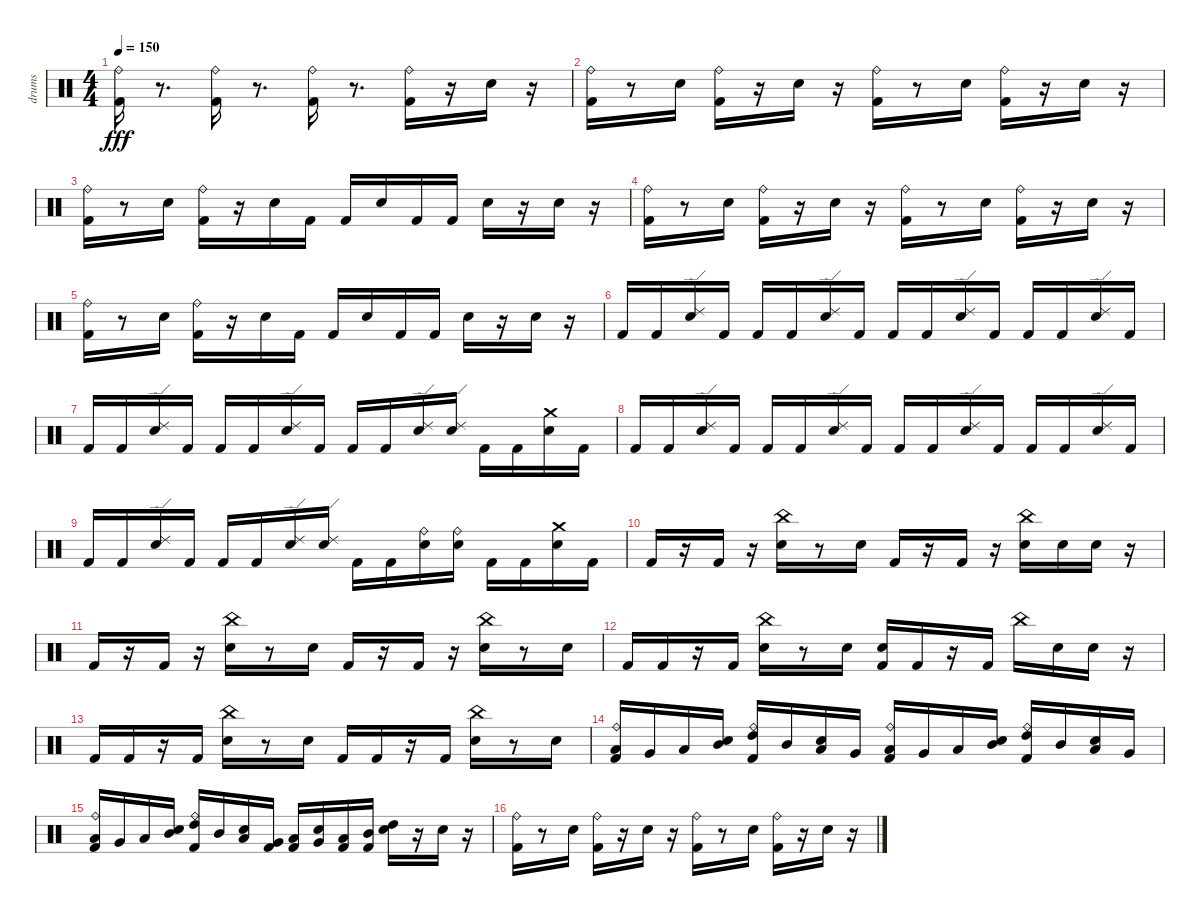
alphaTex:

\track ("drums" "drums") {instrument percussion}
\staff {score}
\articulation defaults
\ts (4 4)
\tempo 150
\clef neutral
\ks c
("Kick (hit) 2" "Ride (bell)").16{dy fff} r.8{d} ("Kick (hit) 2" "Ride (bell)").16 r.8{d} ("Kick (hit) 2" "Ride (bell)").16 r.8{d} ("Kick (hit) 2" "Ride (bell)").16 r.16 "Electric Snare (hit)".16 r.16 |
("Ride (bell)" "Kick (hit) 2").16 r.8 "Electric Snare (hit)".16 ("Ride (bell)" "Kick (hit) 2").16 r.16 "Electric Snare (hit)".16 r.16 ("Ride (bell)" "Kick (hit) 2").16 r.8 "Electric Snare (hit)".16 ("Ride (bell)" "Kick (hit) 2").16 r.16 "Electric Snare (hit)".16 r.16 |
("Ride (bell)" "Kick (hit) 2").16 r.8 "Electric Snare (hit)".16 ("Ride (bell)" "Kick (hit) 2").16 r.16 "Electric Snare (hit)".16 "Kick (hit) 2".16 "Kick (hit) 2".16 "Electric Snare (hit)".16 "Kick (hit) 2".16 "Kick (hit) 2".16 "Electric Snare (hit)".16 r.16 "Electric Snare (hit)".16 r.16 |
("Ride (bell)" "Kick (hit) 2").16 r.8 "Electric Snare (hit)".16 ("Ride (bell)" "Kick (hit) 2").16 r.16 "Electric Snare (hit)".16 r.16 ("Ride (bell)" "Kick (hit) 2").16 r.8 "Electric Snare (hit)".16 ("Ride (bell)" "Kick (hit) 2").16 r.16 "Electric Snare (hit)".16 r.16 |
("Ride (bell)" "Kick (hit) 2").16 r.8 "Electric Snare (hit)".16 ("Ride (bell)" "Kick (hit) 2").16 r.16 "Electric Snare (hit)".16 "Kick (hit) 2".16 "Kick (hit) 2".16 "Electric Snare (hit)".16 "Kick (hit) 2".16 "Kick (hit) 2".16 "Electric Snare (hit)".16 r.16 "Electric Snare (hit)".16 r.16 |
"Kick (hit) 2".16 "Kick (hit) 2".16 ("Ride (edge) 2" "Electric Snare (hit)").16 "Kick (hit) 2".16 "Kick (hit) 2".16 "Kick (hit) 2".16 ("Ride (edge) 2" "Electric Snare (hit)").16 "Kick (hit) 2".16 "Kick (hit) 2".16 "Kick (hit) 2".16 ("Ride (edge) 2" "Electric Snare (hit)").16 "Kick (hit) 2".16 "Kick (hit) 2".16 "Kick (hit) 2".16 ("Ride (edge) 2" "Electric Snare (hit)").16 "Kick (hit) 2".16 |
"Kick (hit) 2".16 "Kick (hit) 2".16 ("Ride (edge) 2" "Electric Snare (hit)").16 "Kick (hit) 2".16 "Kick (hit) 2".16 "Kick (hit) 2".16 ("Ride (edge) 2" "Electric Snare (hit)").16 "Kick (hit) 2".16 "Kick (hit) 2".16 "Kick (hit) 2".16 ("Ride (edge) 2" "Electric Snare (hit)").16 ("Ride (edge) 2" "Electric Snare (hit)").16 "Kick (hit) 2".16 "Kick (hit) 2".16 ("Crash medium (hit)" "Electric Snare (hit)").16 "Kick (hit) 2".16 |
"Kick (hit) 2".16 "Kick (hit) 2".16 ("Ride (edge) 2" "Electric Snare (hit)").16 "Kick (hit) 2".16 "Kick (hit) 2".16 "Kick (hit) 2".16 ("Ride (edge) 2" "Electric Snare (hit)").16 "Kick (hit) 2".16 "Kick (hit) 2".16 "Kick (hit) 2".16 ("Ride (edge) 2" "Electric Snare (hit)").16 "Kick (hit) 2".16 "Kick (hit) 2".16 "Kick (hit) 2".16 ("Ride (edge) 2" "Electric Snare (hit)").16 "Kick (hit) 2".16 |
"Kick (hit) 2".16 "Kick (hit) 2".16 ("Ride (edge) 2" "Electric Snare (hit)").16 "Kick (hit) 2".16 "Kick (hit) 2".16 "Kick (hit) 2".16 ("Ride (edge) 2" "Electric Snare (hit)").16 ("Ride (edge) 2" "Electric Snare (hit)").16 "Kick (hit) 2".16 "Kick (hit) 2".16 ("Ride (bell)" "Electric Snare (hit)").16 ("Ride (bell)" "Electric Snare (hit)").16 "Kick (hit) 2".16 "Kick (hit) 2".16 ("Crash medium (hit)" "Electric Snare (hit)").16 "Kick (hit) 2".16 |
"Kick (hit) 2".16 r.16 "Kick (hit) 2".16 r.16 ("China (hit)" "Electric Snare (hit)").16 r.8 "Electric Snare (hit)".16 "Kick (hit) 2".16 r.16 "Kick (hit) 2".16 r.16 ("China (hit)" "Electric Snare (hit)").16 "Electric Snare (hit)".16 "Electric Snare (hit)".16 r.16 |
"Kick (hit) 2".16 r.16 "Kick (hit) 2".16 r.16 ("China (hit)" "Electric Snare (hit)").16 r.8 "Electric Snare (hit)".16 "Kick (hit) 2".16 r.16 "Kick (hit) 2".16 r.16 ("Electric Snare (hit)" "China (hit)").16 r.8 "Electric Snare (hit)".16 |
"Kick (hit) 2".16 "Kick (hit) 2".16 r.16 "Kick (hit) 2".16 ("China (hit)" "Electric Snare (hit)").16 r.8 "Electric Snare (hit)".16 ("Electric Snare (hit)" "Kick (hit) 2").16 "Kick (hit) 2".16 r.16 "Kick (hit) 2".16 "China (hit)".16 "Electric Snare (hit)".16 "Electric Snare (hit)".16 r.16 |
"Kick (hit) 2".16 "Kick (hit) 2".16 r.16 "Kick (hit) 2".16 ("China (hit)" "Electric Snare (hit)").16 r.8 "Electric Snare (hit)".16 "Kick (hit) 2".16 "Kick (hit) 2".16 r.16 "Kick (hit) 2".16 ("China (hit)" "Electric Snare (hit)").16 r.8 "Electric Snare (hit)".16 |
("Low Floor Tom (hit)" "Ride (bell)" "Kick (hit) 2").16 "Very Low Tom (hit)".16 "Low Tom (hit)".16 ("Mid Tom (hit)" "Electric Snare (hit)").16 ("High Tom (hit)" "Ride (bell)" "Kick (hit) 2").16 "Mid Tom (hit)".16 ("Low Tom (hit)" "Electric Snare (hit)").16 "Very Low Tom (hit)".16 ("Low Floor Tom (hit)" "Ride (bell)" "Kick (hit) 2").16 "Very Low Tom (hit)".16 "Low Tom (hit)".16 ("Mid Tom (hit)" "Electric Snare (hit)").16 ("High Tom (hit)" "Ride (bell)" "Kick (hit) 2").16 "Mid Tom (hit)".16 ("Low Tom (hit)" "Electric Snare (hit)").16 "Very Low Tom (hit)".16 |
("Low Floor Tom (hit)" "Ride (bell)" "Kick (hit) 2").16 "Very Low Tom (hit)".16 "Low Tom (hit)".16 ("Mid Tom (hit)" "Electric Snare (hit)").16 ("High Tom (hit)" "Ride (bell)" "Kick (hit) 2").16 "Mid Tom (hit)".16 ("Low Tom (hit)" "Electric Snare (hit)").16 ("Very Low Tom (hit)" "Kick (hit) 2").16 ("Low Floor Tom (hit)" "Kick (hit) 2").16 ("Very Low Tom (hit)" "Electric Snare (hit)").16 ("Low Tom (hit)" "Kick (hit) 2").16 ("Mid Tom (hit)" "Kick (hit) 2").16 ("High Tom (hit)" "Electric Snare (hit)").16 r.16 "Electric Snare (hit)".16 r.16 |
("Kick (hit) 2" "Ride (bell)").16 r.8 "Electric Snare (hit)".16 ("Kick (hit) 2" "Ride (bell)").16 r.16 "Electric Snare (hit)".16 r.16 ("Kick (hit) 2" "Ride (bell)").16 r.8 "Electric Snare (hit)".16 ("Kick (hit) 2" "Ride (bell)").16 r.16 "Electric Snare (hit)".16 r.16
